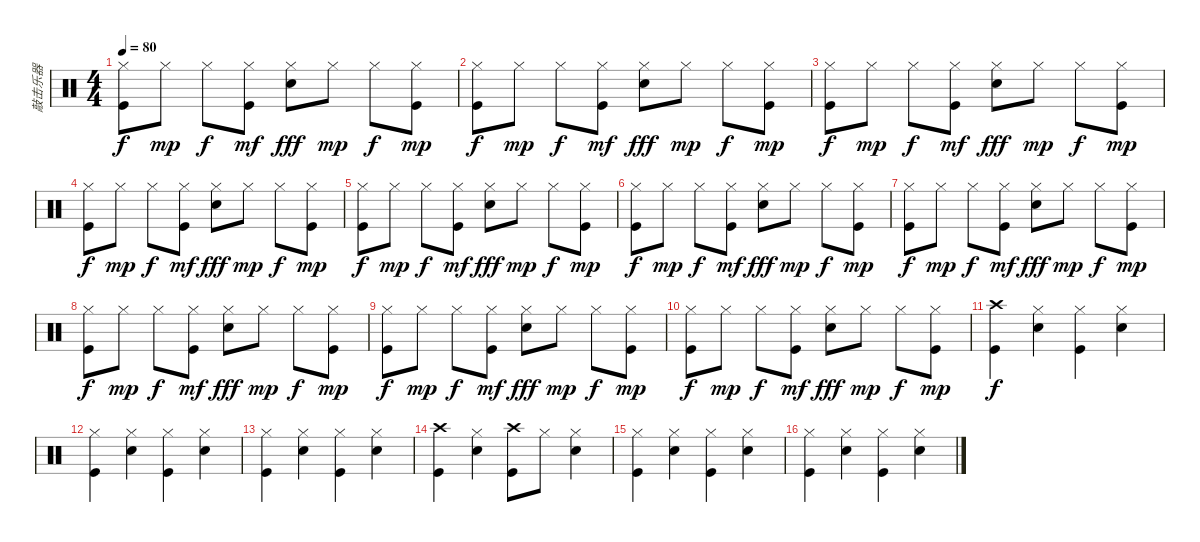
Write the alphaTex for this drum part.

\track ("敲击乐器" "敲击乐器") {instrument percussion}
\staff {score}
\articulation defaults
\ts (4 4)
\tempo 80
\clef neutral
\ks c
("Hi-Hat (closed)" "Kick (hit)").8{dy f} "Hi-Hat (closed)".8{dy mp} "Hi-Hat (closed)".8{dy f} ("Hi-Hat (closed)" "Kick (hit)").8{dy mf} ("Hi-Hat (closed)" "Snare (hit) 2").8{dy fff} "Hi-Hat (closed)".8{dy mp} "Hi-Hat (closed)".8{dy f} ("Hi-Hat (closed)" "Kick (hit)").8{dy mp} |
("Hi-Hat (closed)" "Kick (hit)").8{dy f} "Hi-Hat (closed)".8{dy mp} "Hi-Hat (closed)".8{dy f} ("Hi-Hat (closed)" "Kick (hit)").8{dy mf} ("Hi-Hat (closed)" "Snare (hit) 2").8{dy fff} "Hi-Hat (closed)".8{dy mp} "Hi-Hat (closed)".8{dy f} ("Hi-Hat (closed)" "Kick (hit)").8{dy mp} |
("Hi-Hat (closed)" "Kick (hit)").8{dy f} "Hi-Hat (closed)".8{dy mp} "Hi-Hat (closed)".8{dy f} ("Hi-Hat (closed)" "Kick (hit)").8{dy mf} ("Hi-Hat (closed)" "Snare (hit) 2").8{dy fff} "Hi-Hat (closed)".8{dy mp} "Hi-Hat (closed)".8{dy f} ("Hi-Hat (closed)" "Kick (hit)").8{dy mp} |
("Hi-Hat (closed)" "Kick (hit)").8{dy f} "Hi-Hat (closed)".8{dy mp} "Hi-Hat (closed)".8{dy f} ("Hi-Hat (closed)" "Kick (hit)").8{dy mf} ("Hi-Hat (closed)" "Snare (hit) 2").8{dy fff} "Hi-Hat (closed)".8{dy mp} "Hi-Hat (closed)".8{dy f} ("Hi-Hat (closed)" "Kick (hit)").8{dy mp} |
("Hi-Hat (closed)" "Kick (hit)").8{dy f} "Hi-Hat (closed)".8{dy mp} "Hi-Hat (closed)".8{dy f} ("Hi-Hat (closed)" "Kick (hit)").8{dy mf} ("Hi-Hat (closed)" "Snare (hit) 2").8{dy fff} "Hi-Hat (closed)".8{dy mp} "Hi-Hat (closed)".8{dy f} ("Hi-Hat (closed)" "Kick (hit)").8{dy mp} |
("Hi-Hat (closed)" "Kick (hit)").8{dy f} "Hi-Hat (closed)".8{dy mp} "Hi-Hat (closed)".8{dy f} ("Hi-Hat (closed)" "Kick (hit)").8{dy mf} ("Hi-Hat (closed)" "Snare (hit) 2").8{dy fff} "Hi-Hat (closed)".8{dy mp} "Hi-Hat (closed)".8{dy f} ("Hi-Hat (closed)" "Kick (hit)").8{dy mp} |
("Hi-Hat (closed)" "Kick (hit)").8{dy f} "Hi-Hat (closed)".8{dy mp} "Hi-Hat (closed)".8{dy f} ("Hi-Hat (closed)" "Kick (hit)").8{dy mf} ("Hi-Hat (closed)" "Snare (hit) 2").8{dy fff} "Hi-Hat (closed)".8{dy mp} "Hi-Hat (closed)".8{dy f} ("Hi-Hat (closed)" "Kick (hit)").8{dy mp} |
("Hi-Hat (closed)" "Kick (hit)").8{dy f} "Hi-Hat (closed)".8{dy mp} "Hi-Hat (closed)".8{dy f} ("Hi-Hat (closed)" "Kick (hit)").8{dy mf} ("Hi-Hat (closed)" "Snare (hit) 2").8{dy fff} "Hi-Hat (closed)".8{dy mp} "Hi-Hat (closed)".8{dy f} ("Hi-Hat (closed)" "Kick (hit)").8{dy mp} |
("Hi-Hat (closed)" "Kick (hit)").8{dy f} "Hi-Hat (closed)".8{dy mp} "Hi-Hat (closed)".8{dy f} ("Hi-Hat (closed)" "Kick (hit)").8{dy mf} ("Hi-Hat (closed)" "Snare (hit) 2").8{dy fff} "Hi-Hat (closed)".8{dy mp} "Hi-Hat (closed)".8{dy f} ("Hi-Hat (closed)" "Kick (hit)").8{dy mp} |
("Hi-Hat (closed)" "Kick (hit)").8{dy f} "Hi-Hat (closed)".8{dy mp} "Hi-Hat (closed)".8{dy f} ("Hi-Hat (closed)" "Kick (hit)").8{dy mf} ("Hi-Hat (closed)" "Snare (hit) 2").8{dy fff} "Hi-Hat (closed)".8{dy mp} "Hi-Hat (closed)".8{dy f} ("Hi-Hat (closed)" "Kick (hit)").8{dy mp} |
("Crash high (hit)" "Kick (hit)").4{dy f} ("Hi-Hat (closed)" "Snare (hit) 2").4 ("Hi-Hat (closed)" "Kick (hit)").4 ("Hi-Hat (closed)" "Snare (hit) 2").4 |
("Hi-Hat (closed)" "Kick (hit)").4 ("Hi-Hat (closed)" "Snare (hit) 2").4 ("Hi-Hat (closed)" "Kick (hit)").4 ("Hi-Hat (closed)" "Snare (hit) 2").4 |
("Hi-Hat (closed)" "Kick (hit)").4 ("Hi-Hat (closed)" "Snare (hit) 2").4 ("Hi-Hat (closed)" "Kick (hit)").4 ("Hi-Hat (closed)" "Snare (hit) 2").4 |
("Crash high (hit)" "Kick (hit)").4 ("Hi-Hat (closed)" "Snare (hit) 2").4 ("Crash high (hit)" "Kick (hit)").8 "Hi-Hat (closed)".8 ("Hi-Hat (closed)" "Snare (hit) 2").4 |
("Hi-Hat (closed)" "Kick (hit)").4 ("Hi-Hat (closed)" "Snare (hit) 2").4 ("Hi-Hat (closed)" "Kick (hit)").4 ("Hi-Hat (closed)" "Snare (hit) 2").4 |
("Hi-Hat (closed)" "Kick (hit)").4 ("Hi-Hat (closed)" "Snare (hit) 2").4 ("Hi-Hat (closed)" "Kick (hit)").4 ("Hi-Hat (closed)" "Snare (hit) 2").4
